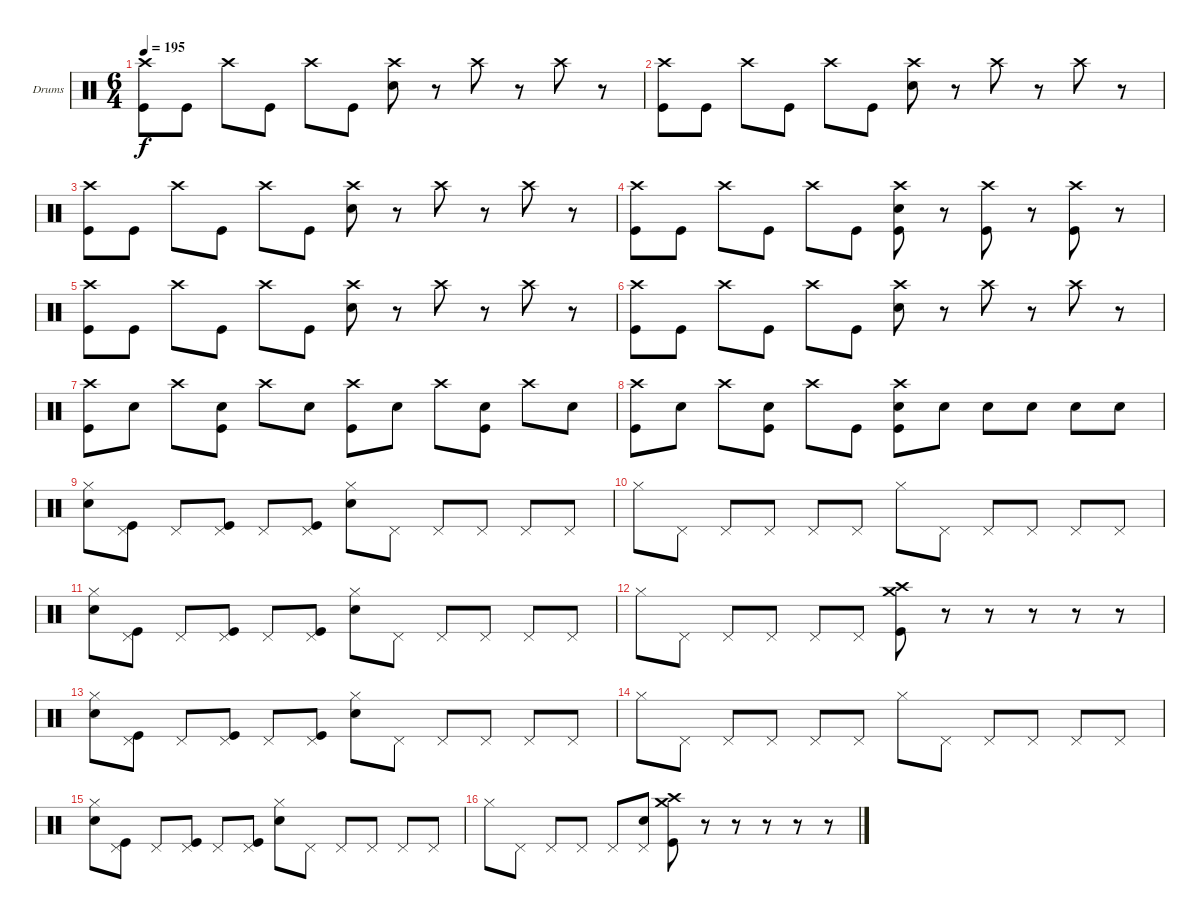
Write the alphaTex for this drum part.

\bracketExtendMode groupsimilarinstruments
\firstSystemTrackNameOrientation horizontal
\otherSystemsTrackNameOrientation horizontal
\track ("Drumkit" "Drums") {instrument percussion}
\staff {score}
\articulation defaults
\ts (6 4)
\tempo 195
\clef neutral
\ks c
("Crash high (hit)" "Kick (hit)").8{dy f} "Kick (hit)".8 "Crash high (hit)".8 "Kick (hit)".8 "Crash high (hit)".8 "Kick (hit)".8 ("Crash high (hit)" "Snare (hit) 2").8 r.8 "Crash high (hit)".8 r.8 "Crash high (hit)".8 r.8 |
("Crash high (hit)" "Kick (hit)").8 "Kick (hit)".8 "Crash high (hit)".8 "Kick (hit)".8 "Crash high (hit)".8 "Kick (hit)".8 ("Crash high (hit)" "Snare (hit) 2").8 r.8 "Crash high (hit)".8 r.8 "Crash high (hit)".8 r.8 |
("Crash high (hit)" "Kick (hit)").8 "Kick (hit)".8 "Crash high (hit)".8 "Kick (hit)".8 "Crash high (hit)".8 "Kick (hit)".8 ("Crash high (hit)" "Snare (hit) 2").8 r.8 "Crash high (hit)".8 r.8 "Crash high (hit)".8 r.8 |
("Crash high (hit)" "Kick (hit)").8 "Kick (hit)".8 "Crash high (hit)".8 "Kick (hit)".8 "Crash high (hit)".8 "Kick (hit)".8 ("Crash high (hit)" "Snare (hit) 2" "Kick (hit)").8 r.8 ("Crash high (hit)" "Kick (hit)").8 r.8 ("Crash high (hit)" "Kick (hit)").8 r.8 |
("Crash high (hit)" "Kick (hit)").8 "Kick (hit)".8 "Crash high (hit)".8 "Kick (hit)".8 "Crash high (hit)".8 "Kick (hit)".8 ("Crash high (hit)" "Snare (hit) 2").8 r.8 "Crash high (hit)".8 r.8 "Crash high (hit)".8 r.8 |
("Crash high (hit)" "Kick (hit)").8 "Kick (hit)".8 "Crash high (hit)".8 "Kick (hit)".8 "Crash high (hit)".8 "Kick (hit)".8 ("Crash high (hit)" "Snare (hit) 2").8 r.8 "Crash high (hit)".8 r.8 "Crash high (hit)".8 r.8 |
("Crash high (hit)" "Kick (hit)").8 "Snare (hit) 2".8 "Crash high (hit)".8 ("Snare (hit) 2" "Kick (hit)").8 "Crash high (hit)".8 "Snare (hit) 2".8 ("Crash high (hit)" "Kick (hit)").8 "Snare (hit) 2".8 "Crash high (hit)".8 ("Snare (hit) 2" "Kick (hit)").8 "Crash high (hit)".8 "Snare (hit) 2".8 |
("Crash high (hit)" "Kick (hit)").8 "Snare (hit) 2".8 "Crash high (hit)".8 ("Snare (hit) 2" "Kick (hit)").8 "Crash high (hit)".8 "Kick (hit)".8 ("Crash high (hit)" "Snare (hit) 2" "Kick (hit)").8 "Snare (hit) 2".8 "Snare (hit) 2".8 "Snare (hit) 2".8 "Snare (hit) 2".8 "Snare (hit) 2".8 |
("Hi-Hat (closed)" "Snare (hit) 2").8 ("Pedal Hi-Hat (hit)" "Kick (hit)").8 "Pedal Hi-Hat (hit)".8 ("Pedal Hi-Hat (hit)" "Kick (hit)").8 "Pedal Hi-Hat (hit)".8 ("Pedal Hi-Hat (hit)" "Kick (hit)").8 ("Hi-Hat (closed)" "Snare (hit) 2").8 "Pedal Hi-Hat (hit)".8 "Pedal Hi-Hat (hit)".8 "Pedal Hi-Hat (hit)".8 "Pedal Hi-Hat (hit)".8 "Pedal Hi-Hat (hit)".8 |
"Hi-Hat (closed)".8 "Pedal Hi-Hat (hit)".8 "Pedal Hi-Hat (hit)".8 "Pedal Hi-Hat (hit)".8 "Pedal Hi-Hat (hit)".8 "Pedal Hi-Hat (hit)".8 "Hi-Hat (closed)".8 "Pedal Hi-Hat (hit)".8 "Pedal Hi-Hat (hit)".8 "Pedal Hi-Hat (hit)".8 "Pedal Hi-Hat (hit)".8 "Pedal Hi-Hat (hit)".8 |
("Hi-Hat (closed)" "Snare (hit) 2").8 ("Pedal Hi-Hat (hit)" "Kick (hit)").8 "Pedal Hi-Hat (hit)".8 ("Pedal Hi-Hat (hit)" "Kick (hit)").8 "Pedal Hi-Hat (hit)".8 ("Pedal Hi-Hat (hit)" "Kick (hit)").8 ("Hi-Hat (closed)" "Snare (hit) 2").8 "Pedal Hi-Hat (hit)".8 "Pedal Hi-Hat (hit)".8 "Pedal Hi-Hat (hit)".8 "Pedal Hi-Hat (hit)".8 "Pedal Hi-Hat (hit)".8 |
"Hi-Hat (closed)".8 "Pedal Hi-Hat (hit)".8 "Pedal Hi-Hat (hit)".8 "Pedal Hi-Hat (hit)".8 "Pedal Hi-Hat (hit)".8 "Pedal Hi-Hat (hit)".8 ("Crash high (hit)" "Crash medium (hit)" "Kick (hit)").8 r.8 r.8 r.8 r.8 r.8 |
("Hi-Hat (closed)" "Snare (hit) 2").8 ("Pedal Hi-Hat (hit)" "Kick (hit)").8 "Pedal Hi-Hat (hit)".8 ("Pedal Hi-Hat (hit)" "Kick (hit)").8 "Pedal Hi-Hat (hit)".8 ("Pedal Hi-Hat (hit)" "Kick (hit)").8 ("Hi-Hat (closed)" "Snare (hit) 2").8 "Pedal Hi-Hat (hit)".8 "Pedal Hi-Hat (hit)".8 "Pedal Hi-Hat (hit)".8 "Pedal Hi-Hat (hit)".8 "Pedal Hi-Hat (hit)".8 |
"Hi-Hat (closed)".8 "Pedal Hi-Hat (hit)".8 "Pedal Hi-Hat (hit)".8 "Pedal Hi-Hat (hit)".8 "Pedal Hi-Hat (hit)".8 "Pedal Hi-Hat (hit)".8 "Hi-Hat (closed)".8 "Pedal Hi-Hat (hit)".8 "Pedal Hi-Hat (hit)".8 "Pedal Hi-Hat (hit)".8 "Pedal Hi-Hat (hit)".8 "Pedal Hi-Hat (hit)".8 |
("Hi-Hat (closed)" "Snare (hit) 2").8 ("Pedal Hi-Hat (hit)" "Kick (hit)").8 "Pedal Hi-Hat (hit)".8 ("Pedal Hi-Hat (hit)" "Kick (hit)").8 "Pedal Hi-Hat (hit)".8 ("Pedal Hi-Hat (hit)" "Kick (hit)").8 ("Hi-Hat (closed)" "Snare (hit) 2").8 "Pedal Hi-Hat (hit)".8 "Pedal Hi-Hat (hit)".8 "Pedal Hi-Hat (hit)".8 "Pedal Hi-Hat (hit)".8 "Pedal Hi-Hat (hit)".8 |
"Hi-Hat (closed)".8 "Pedal Hi-Hat (hit)".8 "Pedal Hi-Hat (hit)".8 "Pedal Hi-Hat (hit)".8 "Pedal Hi-Hat (hit)".8 ("Pedal Hi-Hat (hit)" "Snare (hit) 2").8 ("Crash high (hit)" "Crash medium (hit)" "Kick (hit)").8 r.8 r.8 r.8 r.8 r.8
